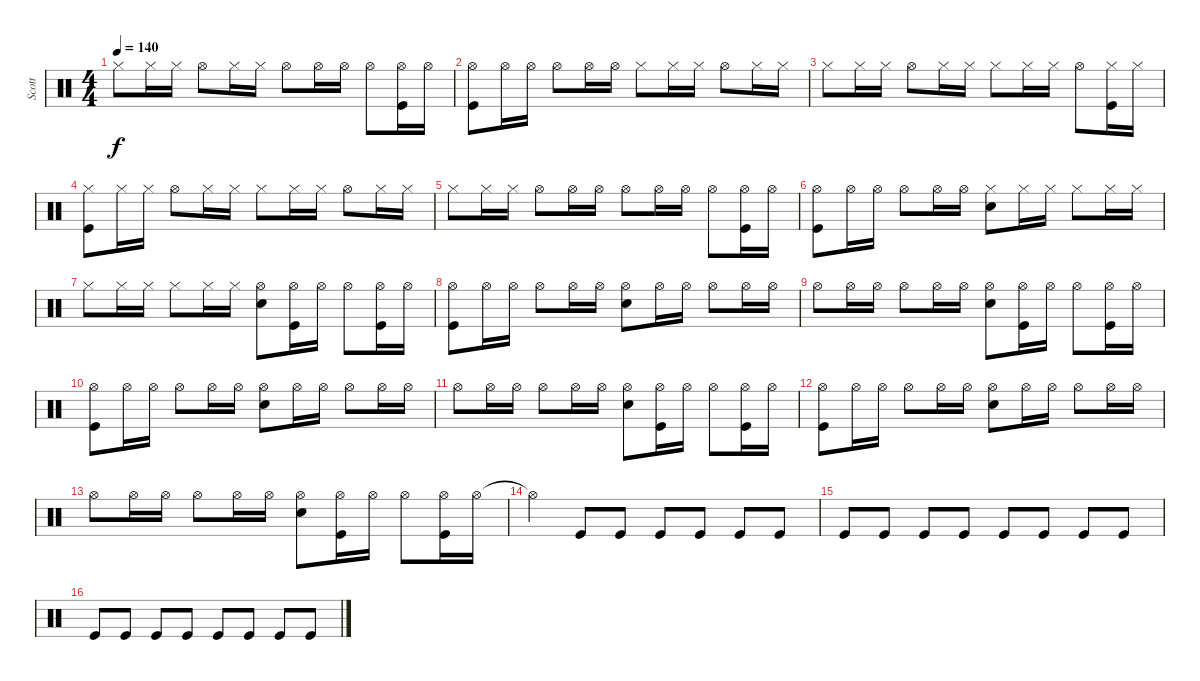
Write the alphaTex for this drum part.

\track ("Scott" "Scott") {instrument percussion}
\staff {score}
\articulation defaults
\ts (4 4)
\tempo 140
\clef neutral
\ks c "Hi-Hat (closed)".8{dy f} "Hi-Hat (closed)".16 "Hi-Hat (closed)".16 "Hi-Hat (open)".8 "Hi-Hat (closed)".16 "Hi-Hat (closed)".16 "Hi-Hat (open)".8 "Hi-Hat (open)".16 "Hi-Hat (open)".16 "Hi-Hat (open)".8
("Kick (hit)" "Hi-Hat (open)").16 "Hi-Hat (open)".16 |
("Kick (hit)" "Hi-Hat (open)").8 "Hi-Hat (open)".16 "Hi-Hat (open)".16 "Hi-Hat (open)".8 "Hi-Hat (open)".16 "Hi-Hat (open)".16 "Hi-Hat (closed)".8 "Hi-Hat (closed)".16 "Hi-Hat (closed)".16 "Hi-Hat (open)".8 "Hi-Hat (closed)".16 "Hi-Hat (closed)".16 |
"Hi-Hat (closed)".8 "Hi-Hat (closed)".16 "Hi-Hat (closed)".16 "Hi-Hat (open)".8 "Hi-Hat (closed)".16 "Hi-Hat (closed)".16 "Hi-Hat (closed)".8 "Hi-Hat (closed)".16 "Hi-Hat (closed)".16 "Hi-Hat (open)".8 ("Kick (hit)" "Hi-Hat (closed)").16 "Hi-Hat (closed)".16 |
("Kick (hit)" "Hi-Hat (closed)").8 "Hi-Hat (closed)".16 "Hi-Hat (closed)".16 "Hi-Hat (open)".8 "Hi-Hat (closed)".16 "Hi-Hat (closed)".16 "Hi-Hat (closed)".8 "Hi-Hat (closed)".16 "Hi-Hat (closed)".16 "Hi-Hat (open)".8 "Hi-Hat (closed)".16 "Hi-Hat (closed)".16 |
"Hi-Hat (closed)".8 "Hi-Hat (closed)".16 "Hi-Hat (closed)".16 "Hi-Hat (open)".8 "Hi-Hat (open)".16 "Hi-Hat (open)".16 "Hi-Hat (open)".8 "Hi-Hat (open)".16 "Hi-Hat (open)".16 "Hi-Hat (open)".8 ("Kick (hit)" "Hi-Hat (open)").16 "Hi-Hat (open)".16 |
("Kick (hit)" "Hi-Hat (open)").8 "Hi-Hat (open)".16 "Hi-Hat (open)".16 "Hi-Hat (open)".8 "Hi-Hat (open)".16 "Hi-Hat (open)".16 ("Snare (hit) 2" "Hi-Hat (closed)").8 "Hi-Hat (closed)".16 "Hi-Hat (closed)".16 "Hi-Hat (closed)".8 "Hi-Hat (closed)".16 "Hi-Hat (closed)".16 |
"Hi-Hat (closed)".8 "Hi-Hat (closed)".16 "Hi-Hat (closed)".16 "Hi-Hat (closed)".8 "Hi-Hat (closed)".16 "Hi-Hat (closed)".16 ("Snare (hit) 2" "Hi-Hat (open)").8 ("Kick (hit)" "Hi-Hat (open)").16 "Hi-Hat (open)".16 "Hi-Hat (open)".8 ("Kick (hit)" "Hi-Hat (open)").16 "Hi-Hat (open)".16 |
("Kick (hit)" "Hi-Hat (open)").8 "Hi-Hat (open)".16 "Hi-Hat (open)".16 "Hi-Hat (open)".8 "Hi-Hat (open)".16 "Hi-Hat (open)".16 ("Snare (hit) 2" "Hi-Hat (open)").8 "Hi-Hat (open)".16 "Hi-Hat (open)".16 "Hi-Hat (open)".8 "Hi-Hat (open)".16 "Hi-Hat (open)".16 |
"Hi-Hat (open)".8 "Hi-Hat (open)".16 "Hi-Hat (open)".16 "Hi-Hat (open)".8 "Hi-Hat (open)".16 "Hi-Hat (open)".16 ("Snare (hit) 2" "Hi-Hat (open)").8 ("Kick (hit)" "Hi-Hat (open)").16 "Hi-Hat (open)".16 "Hi-Hat (open)".8 ("Kick (hit)" "Hi-Hat (open)").16 "Hi-Hat (open)".16 |
("Kick (hit)" "Hi-Hat (open)").8 "Hi-Hat (open)".16 "Hi-Hat (open)".16 "Hi-Hat (open)".8 "Hi-Hat (open)".16 "Hi-Hat (open)".16 ("Snare (hit) 2" "Hi-Hat (open)").8 "Hi-Hat (open)".16 "Hi-Hat (open)".16 "Hi-Hat (open)".8 "Hi-Hat (open)".16 "Hi-Hat (open)".16 |
"Hi-Hat (open)".8 "Hi-Hat (open)".16 "Hi-Hat (open)".16 "Hi-Hat (open)".8 "Hi-Hat (open)".16 "Hi-Hat (open)".16 ("Snare (hit) 2" "Hi-Hat (open)").8 ("Kick (hit)" "Hi-Hat (open)").16 "Hi-Hat (open)".16 "Hi-Hat (open)".8 ("Kick (hit)" "Hi-Hat (open)").16 "Hi-Hat (open)".16 |
("Kick (hit)" "Hi-Hat (open)").8 "Hi-Hat (open)".16 "Hi-Hat (open)".16 "Hi-Hat (open)".8 "Hi-Hat (open)".16 "Hi-Hat (open)".16 ("Snare (hit) 2" "Hi-Hat (open)").8 "Hi-Hat (open)".16 "Hi-Hat (open)".16 "Hi-Hat (open)".8 "Hi-Hat (open)".16 "Hi-Hat (open)".16 |
"Hi-Hat (open)".8 "Hi-Hat (open)".16 "Hi-Hat (open)".16 "Hi-Hat (open)".8 "Hi-Hat (open)".16 "Hi-Hat (open)".16 ("Snare (hit) 2" "Hi-Hat (open)").8 ("Kick (hit)" "Hi-Hat (open)").16 "Hi-Hat (open)".16 "Hi-Hat (open)".8 ("Kick (hit)" "Hi-Hat (open)").16 "Hi-Hat (open)".16 |
"Hi-Hat (open)"{t}.4 "Kick (hit)".8 "Kick (hit)".8 "Kick (hit)".8 "Kick (hit)".8 "Kick (hit)".8 "Kick (hit)".8 |
"Kick (hit)".8 "Kick (hit)".8 "Kick (hit)".8 "Kick (hit)".8 "Kick (hit)".8 "Kick (hit)".8 "Kick (hit)".8 "Kick (hit)".8 |
"Kick (hit)".8 "Kick (hit)".8 "Kick (hit)".8 "Kick (hit)".8 "Kick (hit)".8 "Kick (hit)".8 "Kick (hit)".8 "Kick (hit)".8
